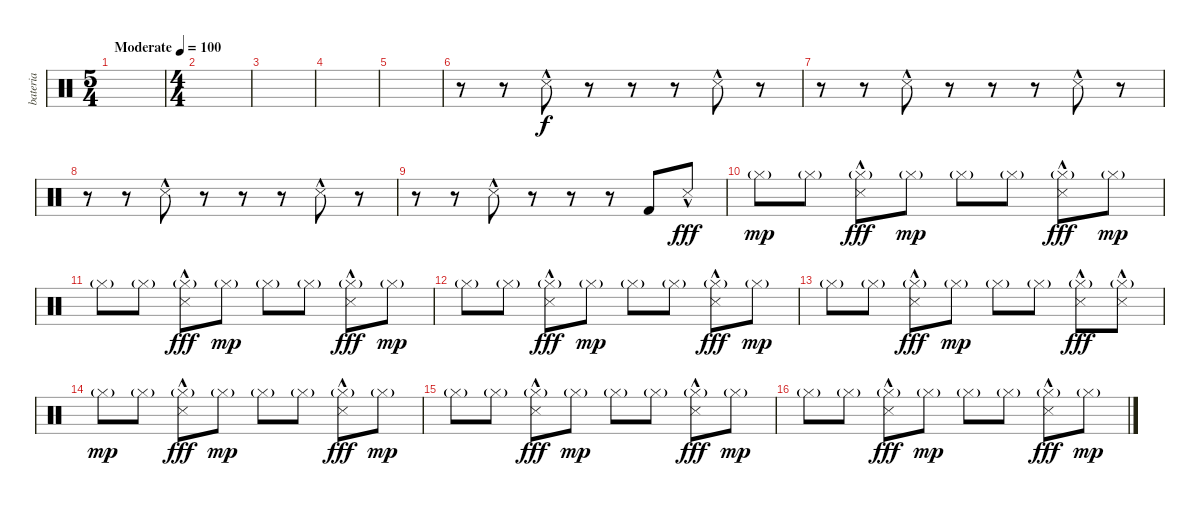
\track ("bateria" "bateria") {instrument percussion}
\staff {score}
\articulation defaults
\ts (5 4)
\tempo (100 "Moderate")
\clef neutral
\ks c
|
\ts (4 4)
|
|
|
|
r.8 r.8 "Snare (side stick) 3"{hac}.8 r.8 r.8 r.8 "Snare (side stick) 3"{hac}.8 r.8 |
r.8 r.8 "Snare (side stick) 3"{hac}.8 r.8 r.8 r.8 "Snare (side stick) 3"{hac}.8 r.8 |
r.8 r.8 "Snare (side stick) 3"{hac}.8 r.8 r.8 r.8 "Snare (side stick) 3"{hac}.8 r.8 |
r.8 r.8 "Snare (side stick) 3"{hac}.8 r.8 r.8 r.8 "Kick (hit) 2".8{dy f} "Snare (side stick) 3"{hac}.8{dy fff} |
"Hi-Hat (closed)"{g}.8{dy mp} "Hi-Hat (closed)"{g}.8 ("Hi-Hat (closed)"{g} "Snare (side stick) 3"{hac}).8{dy fff} "Hi-Hat (closed)"{g}.8{dy mp} "Hi-Hat (closed)"{g}.8 "Hi-Hat (closed)"{g}.8 ("Hi-Hat (closed)"{g} "Snare (side stick) 3"{hac}).8{dy fff} "Hi-Hat (closed)"{g}.8{dy mp} |
"Hi-Hat (closed)"{g}.8 "Hi-Hat (closed)"{g}.8 ("Hi-Hat (closed)"{g} "Snare (side stick) 3"{hac}).8{dy fff} "Hi-Hat (closed)"{g}.8{dy mp} "Hi-Hat (closed)"{g}.8 "Hi-Hat (closed)"{g}.8 ("Hi-Hat (closed)"{g} "Snare (side stick) 3"{hac}).8{dy fff} "Hi-Hat (closed)"{g}.8{dy mp} |
"Hi-Hat (closed)"{g}.8 "Hi-Hat (closed)"{g}.8 ("Hi-Hat (closed)"{g} "Snare (side stick) 3"{hac}).8{dy fff} "Hi-Hat (closed)"{g}.8{dy mp} "Hi-Hat (closed)"{g}.8 "Hi-Hat (closed)"{g}.8 ("Hi-Hat (closed)"{g} "Snare (side stick) 3"{hac}).8{dy fff} "Hi-Hat (closed)"{g}.8{dy mp} |
"Hi-Hat (closed)"{g}.8 "Hi-Hat (closed)"{g}.8 ("Hi-Hat (closed)"{g} "Snare (side stick) 3"{hac}).8{dy fff} "Hi-Hat (closed)"{g}.8{dy mp} "Hi-Hat (closed)"{g}.8 "Hi-Hat (closed)"{g}.8 ("Hi-Hat (closed)"{g} "Snare (side stick) 3"{hac}).8{dy fff} ("Hi-Hat (closed)"{g} "Snare (side stick) 3"{hac}).8 |
"Hi-Hat (closed)"{g}.8{dy mp} "Hi-Hat (closed)"{g}.8 ("Hi-Hat (closed)"{g} "Snare (side stick) 3"{hac}).8{dy fff} "Hi-Hat (closed)"{g}.8{dy mp} "Hi-Hat (closed)"{g}.8 "Hi-Hat (closed)"{g}.8 ("Hi-Hat (closed)"{g} "Snare (side stick) 3"{hac}).8{dy fff} "Hi-Hat (closed)"{g}.8{dy mp} |
"Hi-Hat (closed)"{g}.8 "Hi-Hat (closed)"{g}.8 ("Hi-Hat (closed)"{g} "Snare (side stick) 3"{hac}).8{dy fff} "Hi-Hat (closed)"{g}.8{dy mp} "Hi-Hat (closed)"{g}.8 "Hi-Hat (closed)"{g}.8 ("Hi-Hat (closed)"{g} "Snare (side stick) 3"{hac}).8{dy fff} "Hi-Hat (closed)"{g}.8{dy mp} |
"Hi-Hat (closed)"{g}.8 "Hi-Hat (closed)"{g}.8 ("Hi-Hat (closed)"{g} "Snare (side stick) 3"{hac}).8{dy fff} "Hi-Hat (closed)"{g}.8{dy mp} "Hi-Hat (closed)"{g}.8 "Hi-Hat (closed)"{g}.8 ("Hi-Hat (closed)"{g} "Snare (side stick) 3"{hac}).8{dy fff} "Hi-Hat (closed)"{g}.8{dy mp}
